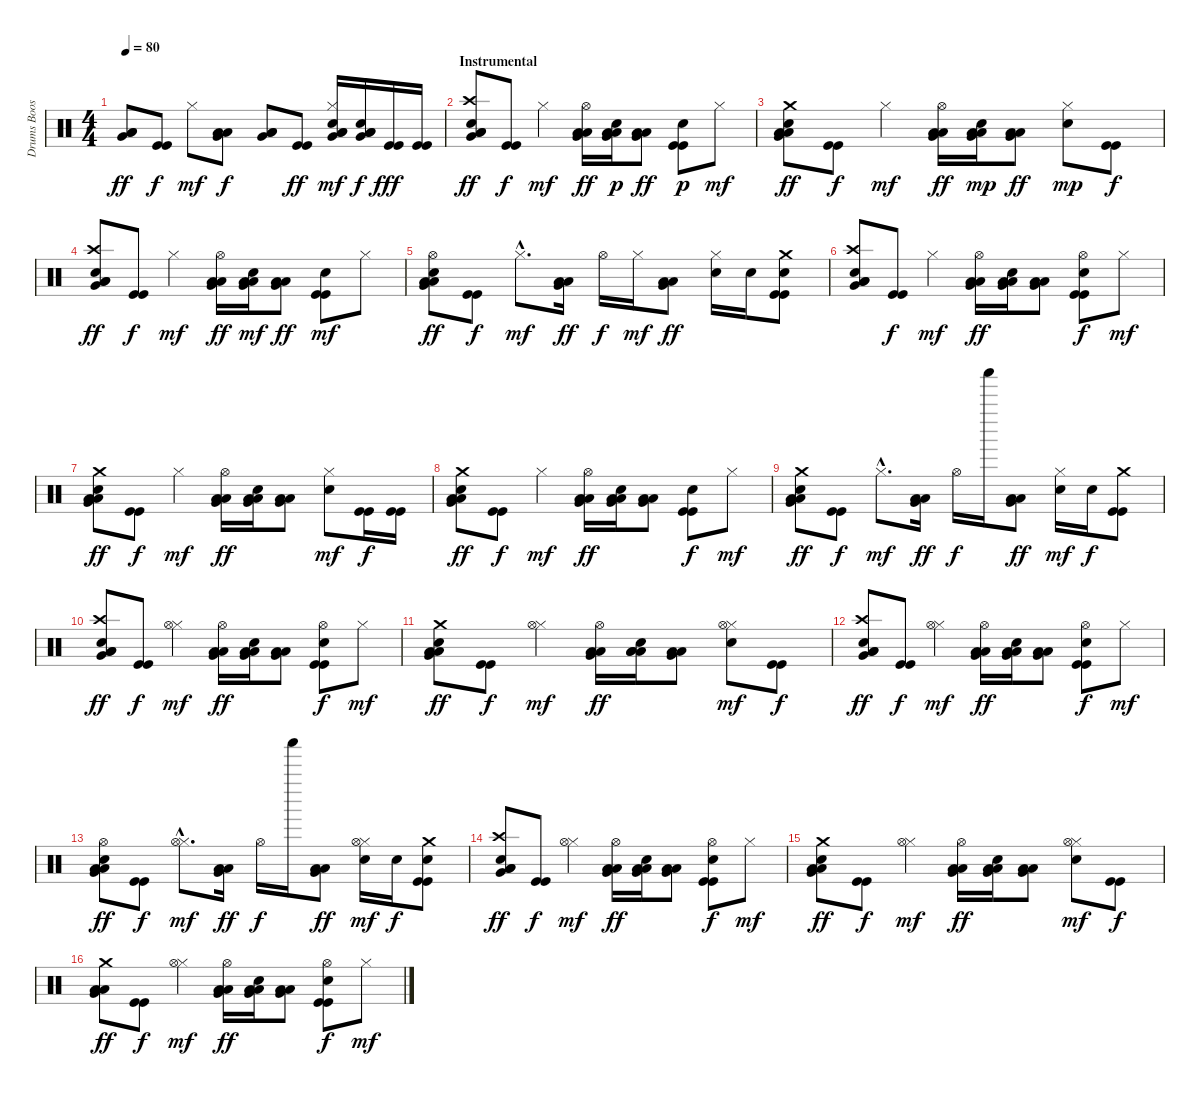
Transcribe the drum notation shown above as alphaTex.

\track ("Drums Boost" "Drums Boos") {instrument percussion}
\staff {score}
\articulation defaults
\ts (4 4)
\tempo 80
\clef neutral
\ks c
("Very Low Tom (hit)" "Low Floor Tom (hit)" "Low Tom (hit)").8{bd 60 dy ff} ("Kick (hit)" "Kick (hit)").8{dy f} "Hi-Hat (closed)".8{dy mf} ("Very Low Tom (hit)" "Low Floor Tom (hit)" "Low Tom (hit)").8{dy f} ("Very Low Tom (hit)" "Low Floor Tom (hit)" "Low Tom (hit)").8 ("Kick (hit)" "Kick (hit)").8{dy ff} ("Hi-Hat (closed)" "Very Low Tom (hit)" "Low Floor Tom (hit)" "Electric Snare (hit)" "Low Tom (hit)").16{dy mf} ("Very Low Tom (hit)" "Low Floor Tom (hit)" "Electric Snare (hit)" "Low Tom (hit)").16{dy f} ("Kick (hit)" "Kick (hit)").16{dy fff} ("Kick (hit)" "Kick (hit)").16 |
\section ("" "Instrumental")
("Crash high (hit)" "Very Low Tom (hit)" "Low Floor Tom (hit)" "Snare (hit) 2" "Low Tom (hit)").8{bd 60 dy ff volume 16} ("Kick (hit)" "Kick (hit)").8{dy f} "Hi-Hat (closed)".4{dy mf} ("Hi-Hat (open)" "Very Low Tom (hit)" "Low Floor Tom (hit)" "Low Tom (hit)").16{dy ff} ("Very Low Tom (hit)" "Low Floor Tom (hit)" "Low Tom (hit)" "Snare (hit) 2").16{dy p} ("Very Low Tom (hit)" "Low Floor Tom (hit)" "Low Tom (hit)").8{dy ff} ("Snare (hit) 2" "Kick (hit)" "Kick (hit)").8{dy p} "Hi-Hat (closed)".8{dy mf} |
("Crash medium (hit)" "Very Low Tom (hit)" "Low Floor Tom (hit)" "Snare (hit) 2" "Low Tom (hit)").8{bd 60 dy ff} ("Kick (hit)" "Kick (hit)").8{dy f} "Hi-Hat (closed)".4{dy mf} ("Hi-Hat (open)" "Very Low Tom (hit)" "Low Floor Tom (hit)" "Low Tom (hit)").16{dy ff} ("Very Low Tom (hit)" "Low Floor Tom (hit)" "Low Tom (hit)" "Snare (hit) 2").16{dy mp} ("Very Low Tom (hit)" "Low Floor Tom (hit)" "Low Tom (hit)").8{dy ff} ("Hi-Hat (closed)" "Snare (hit) 2").8{dy mp} ("Kick (hit)" "Kick (hit)").8{dy f} |
("Crash high (hit)" "Very Low Tom (hit)" "Low Floor Tom (hit)" "Snare (hit) 2" "Low Tom (hit)").8{bd 60 dy ff} ("Kick (hit)" "Kick (hit)").8{dy f} "Hi-Hat (closed)".4{dy mf} ("Hi-Hat (open)" "Very Low Tom (hit)" "Low Floor Tom (hit)" "Low Tom (hit)").16{dy ff} ("Very Low Tom (hit)" "Low Floor Tom (hit)" "Low Tom (hit)" "Snare (hit) 2").16{dy mf} ("Very Low Tom (hit)" "Low Floor Tom (hit)" "Low Tom (hit)").8{dy ff} ("Snare (hit) 2" "Kick (hit)" "Kick (hit)").8{dy mf} "Hi-Hat (closed)".8 |
("Hi-Hat (open)" "Very Low Tom (hit)" "Low Floor Tom (hit)" "Snare (hit) 2" "Low Tom (hit)").8{dy ff} ("Kick (hit)" "Kick (hit)").8{dy f} "Hi-Hat (closed)"{hac}.8{d dy mf} ("Very Low Tom (hit)" "Low Floor Tom (hit)" "Low Tom (hit)").16{dy ff} "Hi-Hat (open)".16{dy f} "Hi-Hat (closed)".16{dy mf} ("Very Low Tom (hit)" "Low Floor Tom (hit)" "Low Tom (hit)").8{dy ff} ("Hi-Hat (closed)" "Snare (hit) 2").16 "Snare (hit) 2".16 ("Crash medium (hit)" "Snare (hit) 2" "Kick (hit)" "Kick (hit)").8 |
("Crash high (hit)" "Very Low Tom (hit)" "Low Floor Tom (hit)" "Snare (hit) 2" "Low Tom (hit)").8{bd 60} ("Kick (hit)" "Kick (hit)").8{dy f} "Hi-Hat (closed)".4{dy mf} ("Hi-Hat (open)" "Very Low Tom (hit)" "Low Floor Tom (hit)" "Low Tom (hit)").16{dy ff} ("Very Low Tom (hit)" "Low Floor Tom (hit)" "Low Tom (hit)" "Snare (hit) 2").16 ("Very Low Tom (hit)" "Low Floor Tom (hit)" "Low Tom (hit)").8 ("Hi-Hat (open)" "Snare (hit) 2" "Kick (hit)" "Kick (hit)").8{dy f} "Hi-Hat (closed)".8{dy mf} |
("Crash medium (hit)" "Very Low Tom (hit)" "Low Floor Tom (hit)" "Snare (hit) 2" "Low Tom (hit)").8{dy ff} ("Kick (hit)" "Kick (hit)").8{dy f} "Hi-Hat (closed)".4{dy mf} ("Hi-Hat (open)" "Very Low Tom (hit)" "Low Floor Tom (hit)" "Low Tom (hit)").16{dy ff} ("Very Low Tom (hit)" "Low Floor Tom (hit)" "Low Tom (hit)" "Snare (hit) 2").16 ("Very Low Tom (hit)" "Low Floor Tom (hit)" "Low Tom (hit)").8 ("Hi-Hat (closed)" "Snare (hit) 2").8{dy mf} ("Kick (hit)" "Kick (hit)").16{dy f} ("Kick (hit)" "Kick (hit)").16 |
("Crash medium (hit)" "Very Low Tom (hit)" "Low Floor Tom (hit)" "Snare (hit) 2" "Low Tom (hit)").8{dy ff} ("Kick (hit)" "Kick (hit)").8{dy f} "Hi-Hat (closed)".4{dy mf} ("Hi-Hat (open)" "Very Low Tom (hit)" "Low Floor Tom (hit)" "Low Tom (hit)").16{dy ff} ("Very Low Tom (hit)" "Low Floor Tom (hit)" "Low Tom (hit)" "Snare (hit) 2").16 ("Very Low Tom (hit)" "Low Floor Tom (hit)" "Low Tom (hit)").8 ("Snare (hit) 2" "Kick (hit)" "Kick (hit)").8{dy f} "Hi-Hat (closed)".8{dy mf} |
("Crash medium (hit)" "Very Low Tom (hit)" "Low Floor Tom (hit)" "Snare (hit) 2" "Low Tom (hit)").8{dy ff} ("Kick (hit)" "Kick (hit)").8{dy f} "Hi-Hat (closed)"{hac}.8{d dy mf} ("Very Low Tom (hit)" "Low Floor Tom (hit)" "Low Tom (hit)").16{dy ff} "Hi-Hat (open)".16{dy f} "Shaker (hit)".16 ("Very Low Tom (hit)" "Low Floor Tom (hit)" "Low Tom (hit)").8{dy ff} ("Hi-Hat (closed)" "Snare (hit) 2").16{dy mf} "Snare (hit) 2".16{dy f} ("Crash medium (hit)" "Kick (hit)" "Kick (hit)").8 |
("Crash high (hit)" "Very Low Tom (hit)" "Low Floor Tom (hit)" "Snare (hit) 2" "Low Tom (hit)").8{bd 60 dy ff} ("Kick (hit)" "Kick (hit)").8{dy f} ("Hi-Hat (closed)" "Hi-Hat (open)").4{dy mf} ("Hi-Hat (open)" "Very Low Tom (hit)" "Low Floor Tom (hit)" "Low Tom (hit)").16{dy ff} ("Very Low Tom (hit)" "Low Floor Tom (hit)" "Low Tom (hit)" "Snare (hit) 2").16 ("Very Low Tom (hit)" "Low Floor Tom (hit)" "Low Tom (hit)").8 ("Hi-Hat (open)" "Snare (hit) 2" "Kick (hit)" "Kick (hit)").8{dy f} "Hi-Hat (closed)".8{dy mf} |
("Crash medium (hit)" "Very Low Tom (hit)" "Low Floor Tom (hit)" "Snare (hit) 2" "Low Tom (hit)").8{bd 60 dy ff} ("Kick (hit)" "Kick (hit)").8{dy f} ("Hi-Hat (closed)" "Hi-Hat (open)").4{dy mf} ("Hi-Hat (open)" "Very Low Tom (hit)" "Low Floor Tom (hit)" "Low Tom (hit)").16{dy ff} ("Low Floor Tom (hit)" "Low Tom (hit)" "Low Tom (hit)" "Snare (hit) 2").16 ("Very Low Tom (hit)" "Low Floor Tom (hit)" "Low Tom (hit)").8 ("Hi-Hat (closed)" "Hi-Hat (open)" "Snare (hit) 2").8{dy mf} ("Kick (hit)" "Kick (hit)").8{dy f} |
("Crash high (hit)" "Very Low Tom (hit)" "Low Floor Tom (hit)" "Snare (hit) 2" "Low Tom (hit)").8{bd 60 dy ff} ("Kick (hit)" "Kick (hit)").8{dy f} ("Hi-Hat (closed)" "Hi-Hat (open)").4{dy mf} ("Hi-Hat (open)" "Very Low Tom (hit)" "Low Floor Tom (hit)" "Low Tom (hit)").16{dy ff} ("Very Low Tom (hit)" "Low Floor Tom (hit)" "Low Tom (hit)" "Snare (hit) 2").16 ("Very Low Tom (hit)" "Low Floor Tom (hit)" "Low Tom (hit)").8 ("Hi-Hat (open)" "Snare (hit) 2" "Kick (hit)" "Kick (hit)").8{dy f} "Hi-Hat (closed)".8{dy mf} |
("Hi-Hat (open)" "Very Low Tom (hit)" "Low Floor Tom (hit)" "Snare (hit) 2" "Low Tom (hit)").8{dy ff} ("Kick (hit)" "Kick (hit)").8{dy f} ("Hi-Hat (closed)"{hac} "Hi-Hat (open)"{hac}).8{d dy mf} ("Very Low Tom (hit)" "Low Floor Tom (hit)" "Low Tom (hit)").16{dy ff} "Hi-Hat (open)".16{dy f} "Shaker (hit)".16 ("Very Low Tom (hit)" "Low Floor Tom (hit)" "Low Tom (hit)").8{dy ff} ("Hi-Hat (closed)" "Hi-Hat (open)" "Snare (hit) 2").16{dy mf} "Snare (hit) 2".16{dy f} ("Crash medium (hit)" "Snare (hit) 2" "Kick (hit)" "Kick (hit)").8 |
("Crash high (hit)" "Very Low Tom (hit)" "Low Floor Tom (hit)" "Snare (hit) 2" "Low Tom (hit)").8{bd 60 dy ff} ("Kick (hit)" "Kick (hit)").8{dy f} ("Hi-Hat (closed)" "Hi-Hat (open)").4{dy mf} ("Hi-Hat (open)" "Very Low Tom (hit)" "Low Floor Tom (hit)" "Low Tom (hit)").16{dy ff} ("Very Low Tom (hit)" "Low Floor Tom (hit)" "Low Tom (hit)" "Snare (hit) 2").16 ("Very Low Tom (hit)" "Low Floor Tom (hit)" "Low Tom (hit)").8 ("Hi-Hat (open)" "Snare (hit) 2" "Kick (hit)" "Kick (hit)").8{dy f} "Hi-Hat (closed)".8{dy mf} |
("Crash medium (hit)" "Very Low Tom (hit)" "Low Floor Tom (hit)" "Snare (hit) 2" "Low Tom (hit)").8{dy ff} ("Kick (hit)" "Kick (hit)").8{dy f} ("Hi-Hat (closed)" "Hi-Hat (open)").4{dy mf} ("Hi-Hat (open)" "Very Low Tom (hit)" "Low Floor Tom (hit)" "Low Tom (hit)").16{dy ff} ("Very Low Tom (hit)" "Low Floor Tom (hit)" "Low Tom (hit)" "Snare (hit) 2").16 ("Very Low Tom (hit)" "Low Floor Tom (hit)" "Low Tom (hit)").8 ("Hi-Hat (closed)" "Hi-Hat (open)" "Snare (hit) 2").8{dy mf} ("Kick (hit)" "Kick (hit)").8{dy f} |
("Crash medium (hit)" "Very Low Tom (hit)" "Low Floor Tom (hit)" "Low Tom (hit)").8{dy ff} ("Kick (hit)" "Kick (hit)").8{dy f} ("Hi-Hat (closed)" "Hi-Hat (open)").4{dy mf} ("Hi-Hat (open)" "Very Low Tom (hit)" "Low Floor Tom (hit)" "Low Tom (hit)").16{dy ff} ("Very Low Tom (hit)" "Low Floor Tom (hit)" "Low Tom (hit)" "Snare (hit) 2").16 ("Very Low Tom (hit)" "Low Floor Tom (hit)" "Low Tom (hit)").8 ("Hi-Hat (open)" "Snare (hit) 2" "Kick (hit)" "Kick (hit)").8{dy f} "Hi-Hat (closed)".8{dy mf}
